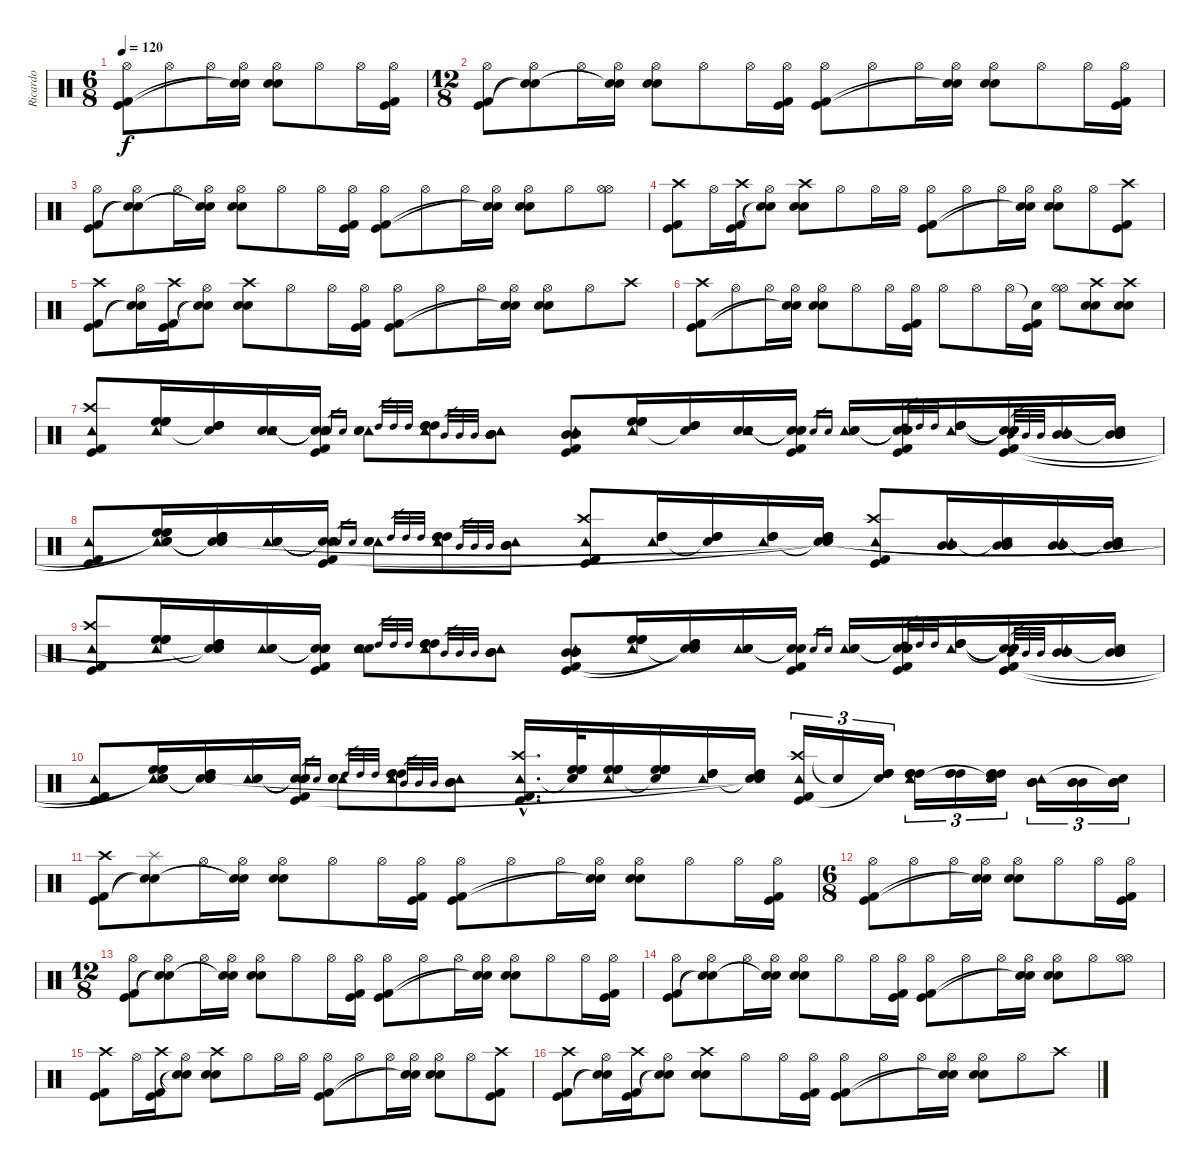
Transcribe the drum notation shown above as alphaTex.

\track ("Ricardo" "Ricardo") {instrument percussion}
\staff {score}
\articulation defaults
\ts (6 8)
\tempo 120
\clef neutral
\ks c
("Hi-Hat (open)" "Kick (hit)" "Kick (hit) 2").8{dy f} "Hi-Hat (open)".8 "Hi-Hat (open)".16 ("Hi-Hat (open)" "Snare (hit)"{t} "Snare (hit)"{t}).16 ("Hi-Hat (open)" "Electric Snare (hit)" "Snare (hit) 2").8 "Hi-Hat (open)".8 "Hi-Hat (open)".16 ("Hi-Hat (open)" "Kick (hit)" "Kick (hit) 2").16 |
\ts (12 8)
("Hi-Hat (open)" "Kick (hit) 2" "Kick (hit)").8 ("Hi-Hat (open)" "Snare (hit)"{t} "Snare (hit)"{t}).8 "Hi-Hat (open)".16 ("Hi-Hat (open)" "Snare (hit)"{t} "Snare (hit)"{t}).16 ("Hi-Hat (open)" "Electric Snare (hit)" "Snare (hit) 2").8 "Hi-Hat (open)".8 "Hi-Hat (open)".16 ("Hi-Hat (open)" "Kick (hit)" "Kick (hit) 2").16 ("Hi-Hat (open)" "Kick (hit) 2" "Kick (hit)").8 "Hi-Hat (open)".8 "Hi-Hat (open)".16 ("Hi-Hat (open)" "Snare (hit)"{t} "Snare (hit)"{t}).16 ("Hi-Hat (open)" "Electric Snare (hit)" "Snare (hit) 2").8 "Hi-Hat (open)".8 "Hi-Hat (open)".16 ("Hi-Hat (open)" "Kick (hit)" "Kick (hit) 2").16 |
("Hi-Hat (open)" "Kick (hit) 2" "Kick (hit)").8 ("Hi-Hat (open)" "Snare (hit)"{t} "Snare (hit)"{t}).8 "Hi-Hat (open)".16 ("Hi-Hat (open)" "Snare (hit)"{t} "Snare (hit)"{t}).16 ("Hi-Hat (open)" "Electric Snare (hit)" "Snare (hit) 2").8 "Hi-Hat (open)".8 "Hi-Hat (open)".16 ("Hi-Hat (open)" "Kick (hit)" "Kick (hit) 2").16 ("Hi-Hat (open)" "Kick (hit) 2" "Kick (hit)").8 "Hi-Hat (open)".8 "Hi-Hat (open)".16 ("Hi-Hat (open)" "Snare (hit)"{t} "Snare (hit)"{t}).16 ("Hi-Hat (open)" "Electric Snare (hit)" "Snare (hit) 2").8 "Hi-Hat (open)".8 ("Hi-Hat (open)" "Hi-Hat (open)").8 |
("Crash high (hit)" "Kick (hit)" "Kick (hit) 2").8 "Hi-Hat (open)".16 ("Crash high (hit)" "Kick (hit)" "Kick (hit) 2").16 ("Hi-Hat (open)" "Snare (hit)"{t} "Snare (hit)"{t}).8 ("Crash high (hit)" "Electric Snare (hit)" "Snare (hit) 2").8 "Hi-Hat (open)".8 "Hi-Hat (open)".16 "Hi-Hat (open)".16 ("Hi-Hat (open)" "Kick (hit)" "Kick (hit) 2").8 "Hi-Hat (open)".8 "Hi-Hat (open)".16 ("Hi-Hat (open)" "Snare (hit)"{t} "Snare (hit)"{t}).16 ("Hi-Hat (open)" "Electric Snare (hit)" "Snare (hit) 2").8 "Hi-Hat (open)".8 ("Crash high (hit)" "Kick (hit)" "Kick (hit) 2").8 |
("Crash high (hit)" "Kick (hit)" "Kick (hit) 2").8 ("Hi-Hat (open)" "Snare (hit)"{t} "Snare (hit)"{t}).16 ("Crash high (hit)" "Kick (hit)" "Kick (hit) 2").16 ("Hi-Hat (open)" "Snare (hit)"{t} "Snare (hit)"{t}).8 ("Crash high (hit)" "Electric Snare (hit)" "Snare (hit) 2").8 "Hi-Hat (open)".8 "Hi-Hat (open)".16 ("Hi-Hat (open)" "Kick (hit)" "Kick (hit) 2").16 ("Hi-Hat (open)" "Kick (hit)" "Kick (hit) 2").8 "Hi-Hat (open)".8 "Hi-Hat (open)".16 ("Hi-Hat (open)" "Snare (hit)"{t} "Snare (hit)"{t}).16 ("Hi-Hat (open)" "Electric Snare (hit)" "Snare (hit) 2").8 "Hi-Hat (open)".8 "Crash high (hit)".8 |
("Crash high (hit)" "Kick (hit)" "Kick (hit) 2").8 "Hi-Hat (open)".8 "Hi-Hat (open)".16 ("Hi-Hat (open)" "Snare (hit)"{t} "Snare (hit)"{t}).16 ("Hi-Hat (open)" "Electric Snare (hit)" "Snare (hit) 2").8 "Hi-Hat (open)".8 "Hi-Hat (open)".16 ("Hi-Hat (open)" "Kick (hit) 2" "Kick (hit)").16 "Hi-Hat (open)".8 "Hi-Hat (open)".8 "Hi-Hat (open)".16 ("Snare (hit)"{t} "Kick (hit)" "Kick (hit) 2").16 ("Hi-Hat (open)" "Hi-Hat (open)").8 ("Crash high (hit)" "Electric Snare (hit)" "Snare (hit) 2").8 ("Crash high (hit)" "Electric Snare (hit)" "Snare (hit) 2").8 |
("Crash high (hit)" "Tambourine (hit)" "Kick (hit) 2" "Kick (hit)").8 ("High Floor Tom (hit)" "High Floor Tom (hit)" "High Floor Tom (hit)" "Tambourine (hit)").16 ("High Tom (hit)" "High Tom (hit)" "High Tom (hit)" "Snare (hit)"{t}).16 ("Electric Snare (hit)" "Snare (hit) 2" "Tambourine (hit)").16 ("Snare (hit)"{t} "Snare (hit)"{t} "Snare (hit)"{t} "Kick (hit) 2" "Kick (hit)").16 "Electric Snare (hit)".16{gr} "Snare (hit) 2".16{gr} ("Tambourine (hit)" "Electric Snare (hit)" "Snare (hit) 2").8 "High Tom (hit)".32{gr} "High Tom (hit)".32{gr} "High Tom (hit)".32{gr} ("Tambourine (hit)" "High Tom (hit)" "High Tom (hit)" "High Tom (hit)").8 "Mid Tom (hit)".32{gr} "Mid Tom (hit)".32{gr} "Mid Tom (hit)".32{gr} ("Tambourine (hit)" "Mid Tom (hit)" "Mid Tom (hit)" "Mid Tom (hit)").8 ("Tambourine (hit)" "Mid Tom (hit)" "Mid Tom (hit)" "Kick (hit) 2" "Kick (hit)").8 ("High Floor Tom (hit)" "High Floor Tom (hit)" "High Floor Tom (hit)" "Tambourine (hit)").16 ("High Tom (hit)" "High Tom (hit)" "High Tom (hit)" "Snare (hit)"{t}).16 ("Electric Snare (hit)" "Snare (hit) 2" "Tambourine (hit)").16 ("Snare (hit)"{t} "Snare (hit)"{t} "Snare (hit)"{t} "Kick (hit) 2" "Kick (hit)").16 "Electric Snare (hit)".16{gr} "Snare (hit) 2".16{gr} ("Tambourine (hit)" "Electric Snare (hit)" "Snare (hit) 2").16 ("Snare (hit)"{t} "Snare (hit)"{t} "Snare (hit)"{t} "Kick (hit) 2" "Kick (hit)").16 "High Tom (hit)".32{gr} "High Tom (hit)".32{gr} "High Tom (hit)".32{gr} ("Tambourine (hit)" "High Tom (hit)" "High Tom (hit)" "High Tom (hit)").16 ("Snare (hit)"{t} "Snare (hit)"{t} "Snare (hit)"{t} "Snare (hit)"{t} "Kick (hit) 2" "Kick (hit)").16 "Mid Tom (hit)".32{gr} "Mid Tom (hit)".32{gr} "Mid Tom (hit)".32{gr} ("Tambourine (hit)" "Mid Tom (hit)" "Mid Tom (hit)" "Mid Tom (hit)").16 ("Snare (hit)"{t} "Mid Tom (hit)" "Mid Tom (hit)" "Mid Tom (hit)").16 |
("Tambourine (hit)" "Kick (hit) 2" "Kick (hit)").8 ("Tambourine (hit)" "High Floor Tom (hit)" "High Floor Tom (hit)" "High Floor Tom (hit)" "Snare (hit)"{t} "Snare (hit)"{t}).16 ("Snare (hit)"{t} "High Tom (hit)" "High Tom (hit)" "High Tom (hit)" "Snare (hit)"{t} "Snare (hit)"{t}).16 ("Tambourine (hit)" "Electric Snare (hit)" "Snare (hit) 2").16 ("Snare (hit)"{t} "Snare (hit)"{t} "Snare (hit)"{t} "Kick (hit)" "Kick (hit) 2").16 "Electric Snare (hit)".16{gr} "Snare (hit) 2".16{gr} ("Tambourine (hit)" "Electric Snare (hit)" "Snare (hit) 2").8 "High Tom (hit)".32{gr} "High Tom (hit)".32{gr} "High Tom (hit)".32{gr} ("Tambourine (hit)" "High Tom (hit)" "High Tom (hit)" "High Tom (hit)").8 "Mid Tom (hit)".32{gr} "Mid Tom (hit)".32{gr} "Mid Tom (hit)".32{gr} ("Tambourine (hit)" "Mid Tom (hit)" "Mid Tom (hit)" "Mid Tom (hit)").8 ("Crash high (hit)" "Tambourine (hit)" "Kick (hit)" "Kick (hit) 2").8 ("Tambourine (hit)" "High Tom (hit)" "High Tom (hit)" "High Tom (hit)").16 ("Snare (hit)"{t} "High Tom (hit)" "High Tom (hit)" "High Tom (hit)").16 ("Tambourine (hit)" "High Tom (hit)" "High Tom (hit)" "High Tom (hit)").16 ("Snare (hit)"{t} "High Tom (hit)" "High Tom (hit)" "High Tom (hit)" "Snare (hit)"{t} "Snare (hit)"{t}).16 ("Crash high (hit)" "Tambourine (hit)" "Kick (hit)" "Kick (hit) 2").8 ("Tambourine (hit)" "Mid Tom (hit)" "Mid Tom (hit)" "Mid Tom (hit)").16 ("Snare (hit)"{t} "Mid Tom (hit)" "Mid Tom (hit)" "Mid Tom (hit)").16 ("Tambourine (hit)" "Mid Tom (hit)" "Mid Tom (hit)" "Mid Tom (hit)").16 ("Snare (hit)"{t} "Mid Tom (hit)" "Mid Tom (hit)" "Mid Tom (hit)").16 |
("Crash high (hit)" "Tambourine (hit)" "Kick (hit)" "Kick (hit) 2").8 ("Tambourine (hit)" "High Floor Tom (hit)" "High Floor Tom (hit)" "High Floor Tom (hit)").16 ("Snare (hit)"{t} "High Tom (hit)" "High Tom (hit)" "High Tom (hit)" "Snare (hit)"{t} "Snare (hit)"{t}).16 ("Tambourine (hit)" "Electric Snare (hit)" "Snare (hit) 2").16 ("Snare (hit)"{t} "Snare (hit)"{t} "Snare (hit)"{t} "Kick (hit) 2" "Kick (hit)").16 ("Electric Snare (hit)" "Snare (hit) 2" "Tambourine (hit)").8 "High Tom (hit)".32{gr} "High Tom (hit)".32{gr} "High Tom (hit)".32{gr} ("Tambourine (hit)" "High Tom (hit)" "High Tom (hit)" "High Tom (hit)").8 "Mid Tom (hit)".32{gr} "Mid Tom (hit)".32{gr} "Mid Tom (hit)".32{gr} ("Mid Tom (hit)" "Mid Tom (hit)" "Mid Tom (hit)" "Tambourine (hit)").8 ("Tambourine (hit)" "Mid Tom (hit)" "Mid Tom (hit)" "Mid Tom (hit)" "Kick (hit)" "Kick (hit) 2").8 ("Tambourine (hit)" "High Floor Tom (hit)" "High Floor Tom (hit)" "High Floor Tom (hit)").16 ("Snare (hit)"{t} "High Tom (hit)" "High Tom (hit)" "High Tom (hit)" "Snare (hit)"{t} "Snare (hit)"{t}).16 ("Tambourine (hit)" "Electric Snare (hit)" "Snare (hit) 2").16 ("Snare (hit)"{t} "Snare (hit)"{t} "Kick (hit) 2" "Kick (hit)").16 "Electric Snare (hit)".16{gr} "Snare (hit) 2".16{gr} ("Tambourine (hit)" "Electric Snare (hit)" "Snare (hit) 2").16 ("Snare (hit)"{t} "Snare (hit)"{t} "Snare (hit)"{t} "Kick (hit)" "Kick (hit) 2").16 "High Tom (hit)".32{gr} "High Tom (hit)".32{gr} "High Tom (hit)".32{gr} ("Tambourine (hit)" "High Tom (hit)" "High Tom (hit)" "High Tom (hit)").16 ("Snare (hit)"{t} "Snare (hit)"{t} "Snare (hit)"{t} "Snare (hit)"{t} "Kick (hit) 2" "Kick (hit)").16 "Mid Tom (hit)".32{gr} "Mid Tom (hit)".32{gr} "Mid Tom (hit)".32{gr} ("Tambourine (hit)" "Mid Tom (hit)" "Mid Tom (hit)" "Mid Tom (hit)").16 ("Snare (hit)"{t} "Mid Tom (hit)" "Mid Tom (hit)" "Mid Tom (hit)").16 |
("Tambourine (hit)" "Kick (hit)" "Kick (hit) 2").8 ("Tambourine (hit)" "High Floor Tom (hit)" "High Floor Tom (hit)" "High Floor Tom (hit)" "Snare (hit)"{t} "Snare (hit)"{t}).16 ("Snare (hit)"{t} "High Tom (hit)" "High Tom (hit)" "High Tom (hit)" "Snare (hit)"{t} "Snare (hit)"{t}).16 ("Tambourine (hit)" "Electric Snare (hit)" "Snare (hit) 2").16 ("Snare (hit)"{t} "Snare (hit)"{t} "Snare (hit)"{t} "Kick (hit) 2" "Kick (hit)").16 "Electric Snare (hit)".16{gr} "Snare (hit) 2".16{gr} ("Tambourine (hit)" "Electric Snare (hit)" "Snare (hit) 2").8 "High Tom (hit)".32{gr} "High Tom (hit)".32{gr} "High Tom (hit)".32{gr} ("Tambourine (hit)" "High Tom (hit)" "High Tom (hit)" "High Tom (hit)").8 "Mid Tom (hit)".32{gr} "Mid Tom (hit)".32{gr} "Mid Tom (hit)".32{gr} ("Tambourine (hit)" "Mid Tom (hit)" "Mid Tom (hit)" "Mid Tom (hit)").8 ("Tambourine (hit)"{hac} "Crash high (hit)"{hac} "Kick (hit) 2"{hac} "Kick (hit)"{hac}).16{d} ("Snare (hit)"{t} "High Floor Tom (hit)" "High Floor Tom (hit)" "High Floor Tom (hit)").32 ("Tambourine (hit)" "High Floor Tom (hit)" "High Floor Tom (hit)" "High Floor Tom (hit)").16 ("Snare (hit)"{t} "High Floor Tom (hit)" "High Floor Tom (hit)" "High Floor Tom (hit)").16 ("Tambourine (hit)" "High Tom (hit)" "High Tom (hit)" "High Tom (hit)").16 ("Snare (hit)"{t} "High Tom (hit)" "High Tom (hit)" "High Tom (hit)" "Snare (hit)"{t} "Snare (hit)"{t}).16 ("Crash high (hit)" "Tambourine (hit)" "Kick (hit) 2" "Kick (hit)").16{tu (3 2)} "Snare (hit)"{t}.16{tu (3 2)} ("High Tom (hit)" "High Tom (hit)" "High Tom (hit)" "Snare (hit)"{t}).16{tu (3 2)} ("High Tom (hit)" "High Tom (hit)" "High Tom (hit)" "Tambourine (hit)").16{tu (3 2)} ("High Tom (hit)" "High Tom (hit)" "High Tom (hit)").16{tu (3 2)} ("High Tom (hit)" "High Tom (hit)" "High Tom (hit)" "Snare (hit)"{t}).16{tu (3 2)} ("Mid Tom (hit)" "Mid Tom (hit)" "Mid Tom (hit)" "Tambourine (hit)").16{tu (3 2)} ("Mid Tom (hit)" "Mid Tom (hit)" "Mid Tom (hit)").16{tu (3 2)} ("Mid Tom (hit)" "Mid Tom (hit)" "Mid Tom (hit)" "Snare (hit)"{t}).16{tu (3 2)} |
("Crash high (hit)" "Kick (hit) 2" "Kick (hit)").8 ("Splash (hit)" "Snare (hit)"{t} "Snare (hit)"{t}).8 "Hi-Hat (open)".16 ("Hi-Hat (open)" "Snare (hit)"{t} "Snare (hit)"{t}).16 ("Hi-Hat (open)" "Electric Snare (hit)" "Snare (hit) 2").8 "Hi-Hat (open)".8 "Hi-Hat (open)".16 ("Hi-Hat (open)" "Kick (hit)" "Kick (hit) 2").16 ("Hi-Hat (open)" "Kick (hit) 2" "Kick (hit)").8 "Hi-Hat (open)".8 "Hi-Hat (open)".16 ("Hi-Hat (open)" "Snare (hit)"{t} "Snare (hit)"{t}).16 ("Hi-Hat (open)" "Electric Snare (hit)" "Snare (hit) 2").8 "Hi-Hat (open)".8 "Hi-Hat (open)".16 ("Hi-Hat (open)" "Kick (hit)" "Kick (hit) 2").16 |
\ts (6 8)
("Hi-Hat (open)" "Kick (hit)" "Kick (hit) 2").8 "Hi-Hat (open)".8 "Hi-Hat (open)".16 ("Hi-Hat (open)" "Snare (hit)"{t} "Snare (hit)"{t}).16 ("Hi-Hat (open)" "Electric Snare (hit)" "Snare (hit) 2").8 "Hi-Hat (open)".8 "Hi-Hat (open)".16 ("Hi-Hat (open)" "Kick (hit)" "Kick (hit) 2").16 |
\ts (12 8)
("Hi-Hat (open)" "Kick (hit) 2" "Kick (hit)").8 ("Hi-Hat (open)" "Snare (hit)"{t} "Snare (hit)"{t}).8 "Hi-Hat (open)".16 ("Hi-Hat (open)" "Snare (hit)"{t} "Snare (hit)"{t}).16 ("Hi-Hat (open)" "Electric Snare (hit)" "Snare (hit) 2").8 "Hi-Hat (open)".8 "Hi-Hat (open)".16 ("Hi-Hat (open)" "Kick (hit)" "Kick (hit) 2").16 ("Hi-Hat (open)" "Kick (hit) 2" "Kick (hit)").8 "Hi-Hat (open)".8 "Hi-Hat (open)".16 ("Hi-Hat (open)" "Snare (hit)"{t} "Snare (hit)"{t}).16 ("Hi-Hat (open)" "Electric Snare (hit)" "Snare (hit) 2").8 "Hi-Hat (open)".8 "Hi-Hat (open)".16 ("Hi-Hat (open)" "Kick (hit)" "Kick (hit) 2").16 |
("Hi-Hat (open)" "Kick (hit) 2" "Kick (hit)").8 ("Hi-Hat (open)" "Snare (hit)"{t} "Snare (hit)"{t}).8 "Hi-Hat (open)".16 ("Hi-Hat (open)" "Snare (hit)"{t} "Snare (hit)"{t}).16 ("Hi-Hat (open)" "Electric Snare (hit)" "Snare (hit) 2").8 "Hi-Hat (open)".8 "Hi-Hat (open)".16 ("Hi-Hat (open)" "Kick (hit)" "Kick (hit) 2").16 ("Hi-Hat (open)" "Kick (hit) 2" "Kick (hit)").8 "Hi-Hat (open)".8 "Hi-Hat (open)".16 ("Hi-Hat (open)" "Snare (hit)"{t} "Snare (hit)"{t}).16 ("Hi-Hat (open)" "Electric Snare (hit)" "Snare (hit) 2").8 "Hi-Hat (open)".8 ("Hi-Hat (open)" "Hi-Hat (open)").8 |
("Crash high (hit)" "Kick (hit)" "Kick (hit) 2").8 "Hi-Hat (open)".16 ("Crash high (hit)" "Kick (hit)" "Kick (hit) 2").16 ("Hi-Hat (open)" "Snare (hit)"{t} "Snare (hit)"{t}).8 ("Crash high (hit)" "Electric Snare (hit)" "Snare (hit) 2").8 "Hi-Hat (open)".8 "Hi-Hat (open)".16 "Hi-Hat (open)".16 ("Hi-Hat (open)" "Kick (hit)" "Kick (hit) 2").8 "Hi-Hat (open)".8 "Hi-Hat (open)".16 ("Hi-Hat (open)" "Snare (hit)"{t} "Snare (hit)"{t}).16 ("Hi-Hat (open)" "Electric Snare (hit)" "Snare (hit) 2").8 "Hi-Hat (open)".8 ("Crash high (hit)" "Kick (hit)" "Kick (hit) 2").8 |
("Crash high (hit)" "Kick (hit)" "Kick (hit) 2").8 ("Hi-Hat (open)" "Snare (hit)"{t} "Snare (hit)"{t}).16 ("Crash high (hit)" "Kick (hit)" "Kick (hit) 2").16 ("Hi-Hat (open)" "Snare (hit)"{t} "Snare (hit)"{t}).8 ("Crash high (hit)" "Electric Snare (hit)" "Snare (hit) 2").8 "Hi-Hat (open)".8 "Hi-Hat (open)".16 ("Hi-Hat (open)" "Kick (hit)" "Kick (hit) 2").16 ("Hi-Hat (open)" "Kick (hit)" "Kick (hit) 2").8 "Hi-Hat (open)".8 "Hi-Hat (open)".16 ("Hi-Hat (open)" "Snare (hit)"{t} "Snare (hit)"{t}).16 ("Hi-Hat (open)" "Electric Snare (hit)" "Snare (hit) 2").8 "Hi-Hat (open)".8 "Crash high (hit)".8
